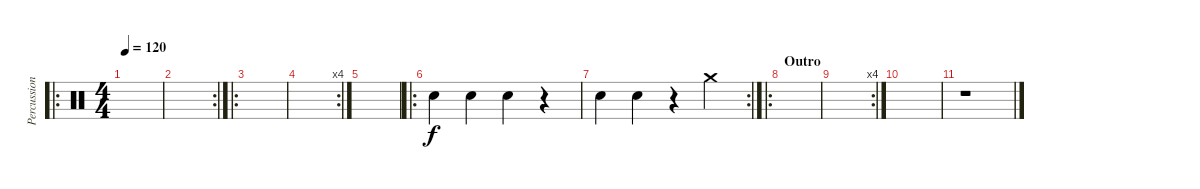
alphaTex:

\track ("Percussion" "Percussion") {instrument percussion}
\staff {score}
\articulation defaults
\ro
\ts (4 4)
\tempo 120
\clef neutral
\ks c
|
\rc 2
|
\ro
|
\rc 4
|
|
\ro "Electric Snare (hit)".4 "Electric Snare (hit)".4 "Electric Snare (hit)".4
r.4 |
\rc 2 "Electric Snare (hit)".4 "Electric Snare (hit)".4
r.4 "Crash medium (hit)".4 |
\ro
\section ("" "Outro")
|
\rc 4
|
|
r.1
